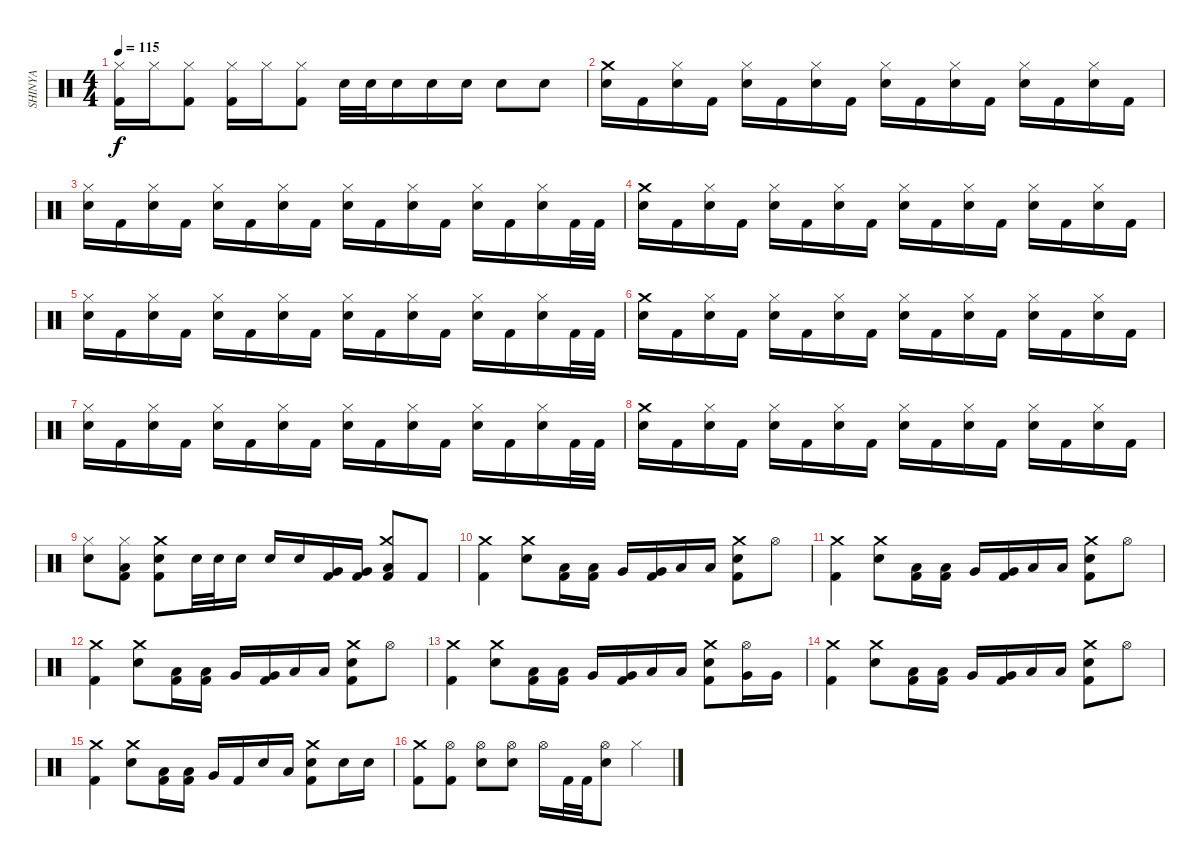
\track ("SHINYA" "SHINYA") {instrument percussion}
\staff {score}
\articulation defaults
\ts (4 4)
\tempo 115
\clef neutral
\ks c
("Hi-Hat (closed)" "Kick (hit) 2").16{dy f} "Hi-Hat (closed)".16 ("Hi-Hat (closed)" "Kick (hit) 2").8 ("Hi-Hat (closed)" "Kick (hit) 2").16 "Hi-Hat (closed)".16 ("Hi-Hat (closed)" "Kick (hit) 2").8 "Electric Snare (hit)".32 "Electric Snare (hit)".32 "Electric Snare (hit)".16 "Electric Snare (hit)".16 "Electric Snare (hit)".16 "Electric Snare (hit)".8 "Electric Snare (hit)".8 |
("Crash medium (hit)" "Electric Snare (hit)").16 "Kick (hit) 2".16 ("Hi-Hat (closed)" "Electric Snare (hit)").16 "Kick (hit) 2".16 ("Hi-Hat (closed)" "Electric Snare (hit)").16 "Kick (hit) 2".16 ("Hi-Hat (closed)" "Electric Snare (hit)").16 "Kick (hit) 2".16 ("Hi-Hat (closed)" "Electric Snare (hit)").16 "Kick (hit) 2".16 ("Hi-Hat (closed)" "Electric Snare (hit)").16 "Kick (hit) 2".16 ("Hi-Hat (closed)" "Electric Snare (hit)").16 "Kick (hit) 2".16 ("Hi-Hat (closed)" "Electric Snare (hit)").16 "Kick (hit) 2".16 |
("Hi-Hat (closed)" "Electric Snare (hit)").16 "Kick (hit) 2".16 ("Hi-Hat (closed)" "Electric Snare (hit)").16 "Kick (hit) 2".16 ("Hi-Hat (closed)" "Electric Snare (hit)").16 "Kick (hit) 2".16 ("Hi-Hat (closed)" "Electric Snare (hit)").16 "Kick (hit) 2".16 ("Hi-Hat (closed)" "Electric Snare (hit)").16 "Kick (hit) 2".16 ("Hi-Hat (closed)" "Electric Snare (hit)").16 "Kick (hit) 2".16 ("Hi-Hat (closed)" "Electric Snare (hit)").16 "Kick (hit) 2".16 ("Hi-Hat (closed)" "Electric Snare (hit)").16 "Kick (hit) 2".32 "Kick (hit) 2".32 |
("Crash medium (hit)" "Electric Snare (hit)").16 "Kick (hit) 2".16 ("Hi-Hat (closed)" "Electric Snare (hit)").16 "Kick (hit) 2".16 ("Hi-Hat (closed)" "Electric Snare (hit)").16 "Kick (hit) 2".16 ("Hi-Hat (closed)" "Electric Snare (hit)").16 "Kick (hit) 2".16 ("Hi-Hat (closed)" "Electric Snare (hit)").16 "Kick (hit) 2".16 ("Hi-Hat (closed)" "Electric Snare (hit)").16 "Kick (hit) 2".16 ("Hi-Hat (closed)" "Electric Snare (hit)").16 "Kick (hit) 2".16 ("Hi-Hat (closed)" "Electric Snare (hit)").16 "Kick (hit) 2".16 |
("Hi-Hat (closed)" "Electric Snare (hit)").16 "Kick (hit) 2".16 ("Hi-Hat (closed)" "Electric Snare (hit)").16 "Kick (hit) 2".16 ("Hi-Hat (closed)" "Electric Snare (hit)").16 "Kick (hit) 2".16 ("Hi-Hat (closed)" "Electric Snare (hit)").16 "Kick (hit) 2".16 ("Hi-Hat (closed)" "Electric Snare (hit)").16 "Kick (hit) 2".16 ("Hi-Hat (closed)" "Electric Snare (hit)").16 "Kick (hit) 2".16 ("Hi-Hat (closed)" "Electric Snare (hit)").16 "Kick (hit) 2".16 ("Hi-Hat (closed)" "Electric Snare (hit)").16 "Kick (hit) 2".32 "Kick (hit) 2".32 |
("Crash medium (hit)" "Electric Snare (hit)").16 "Kick (hit) 2".16 ("Hi-Hat (closed)" "Electric Snare (hit)").16 "Kick (hit) 2".16 ("Hi-Hat (closed)" "Electric Snare (hit)").16 "Kick (hit) 2".16 ("Hi-Hat (closed)" "Electric Snare (hit)").16 "Kick (hit) 2".16 ("Hi-Hat (closed)" "Electric Snare (hit)").16 "Kick (hit) 2".16 ("Hi-Hat (closed)" "Electric Snare (hit)").16 "Kick (hit) 2".16 ("Hi-Hat (closed)" "Electric Snare (hit)").16 "Kick (hit) 2".16 ("Hi-Hat (closed)" "Electric Snare (hit)").16 "Kick (hit) 2".16 |
("Hi-Hat (closed)" "Electric Snare (hit)").16 "Kick (hit) 2".16 ("Hi-Hat (closed)" "Electric Snare (hit)").16 "Kick (hit) 2".16 ("Hi-Hat (closed)" "Electric Snare (hit)").16 "Kick (hit) 2".16 ("Hi-Hat (closed)" "Electric Snare (hit)").16 "Kick (hit) 2".16 ("Hi-Hat (closed)" "Electric Snare (hit)").16 "Kick (hit) 2".16 ("Hi-Hat (closed)" "Electric Snare (hit)").16 "Kick (hit) 2".16 ("Hi-Hat (closed)" "Electric Snare (hit)").16 "Kick (hit) 2".16 ("Hi-Hat (closed)" "Electric Snare (hit)").16 "Kick (hit) 2".32 "Kick (hit) 2".32 |
("Crash medium (hit)" "Electric Snare (hit)").16 "Kick (hit) 2".16 ("Hi-Hat (closed)" "Electric Snare (hit)").16 "Kick (hit) 2".16 ("Hi-Hat (closed)" "Electric Snare (hit)").16 "Kick (hit) 2".16 ("Hi-Hat (closed)" "Electric Snare (hit)").16 "Kick (hit) 2".16 ("Hi-Hat (closed)" "Electric Snare (hit)").16 "Kick (hit) 2".16 ("Hi-Hat (closed)" "Electric Snare (hit)").16 "Kick (hit) 2".16 ("Hi-Hat (closed)" "Electric Snare (hit)").16 "Kick (hit) 2".16 ("Hi-Hat (closed)" "Electric Snare (hit)").16 "Kick (hit) 2".16 |
("Hi-Hat (closed)" "Electric Snare (hit)").8 ("Hi-Hat (closed)" "Low Floor Tom (hit)" "Kick (hit) 2").8 ("Crash medium (hit)" "Electric Snare (hit)" "Kick (hit) 2").8 "Electric Snare (hit)".32 "Electric Snare (hit)".32 "Electric Snare (hit)".16 "Electric Snare (hit)".16 "Electric Snare (hit)".16 ("Very Low Tom (hit)" "Kick (hit) 2").16 ("Very Low Tom (hit)" "Kick (hit) 2").16 ("Crash medium (hit)" "Low Floor Tom (hit)" "Kick (hit) 2").8 "Kick (hit) 2".8 |
("Crash medium (hit)" "Kick (hit) 2").4 ("Crash medium (hit)" "Electric Snare (hit)").8 ("Low Tom (hit)" "Kick (hit) 2").16 ("Low Tom (hit)" "Kick (hit) 2").16 "Very Low Tom (hit)".16 ("Very Low Tom (hit)" "Kick (hit) 2").16 "Low Floor Tom (hit)".16 "Low Floor Tom (hit)".16 ("Crash medium (hit)" "Electric Snare (hit)" "Kick (hit) 2").8 "Hi-Hat (open)".8 |
("Crash medium (hit)" "Kick (hit) 2").4 ("Crash medium (hit)" "Electric Snare (hit)").8 ("Low Tom (hit)" "Kick (hit) 2").16 ("Low Tom (hit)" "Kick (hit) 2").16 "Very Low Tom (hit)".16 ("Very Low Tom (hit)" "Kick (hit) 2").16 "Low Floor Tom (hit)".16 "Low Floor Tom (hit)".16 ("Crash medium (hit)" "Electric Snare (hit)" "Kick (hit) 2").8 "Hi-Hat (open)".8 |
("Crash medium (hit)" "Kick (hit) 2").4 ("Crash medium (hit)" "Electric Snare (hit)").8 ("Low Tom (hit)" "Kick (hit) 2").16 ("Low Tom (hit)" "Kick (hit) 2").16 "Very Low Tom (hit)".16 ("Very Low Tom (hit)" "Kick (hit) 2").16 "Low Floor Tom (hit)".16 "Low Floor Tom (hit)".16 ("Crash medium (hit)" "Electric Snare (hit)" "Kick (hit) 2").8 "Hi-Hat (open)".8 |
("Crash medium (hit)" "Kick (hit) 2").4 ("Crash medium (hit)" "Electric Snare (hit)").8 ("Low Tom (hit)" "Kick (hit) 2").16 ("Low Tom (hit)" "Kick (hit) 2").16 "Very Low Tom (hit)".16 ("Very Low Tom (hit)" "Kick (hit) 2").16 "Low Floor Tom (hit)".16 "Low Floor Tom (hit)".16 ("Crash medium (hit)" "Electric Snare (hit)" "Kick (hit) 2").8 ("Hi-Hat (open)" "Very Low Tom (hit)").16 "Very Low Tom (hit)".16 |
("Crash medium (hit)" "Kick (hit) 2").4 ("Crash medium (hit)" "Electric Snare (hit)").8 ("Low Tom (hit)" "Kick (hit) 2").16 ("Low Tom (hit)" "Kick (hit) 2").16 "Very Low Tom (hit)".16 ("Very Low Tom (hit)" "Kick (hit) 2").16 "Low Floor Tom (hit)".16 "Low Floor Tom (hit)".16 ("Crash medium (hit)" "Electric Snare (hit)" "Kick (hit) 2").8 "Hi-Hat (open)".8 |
("Crash medium (hit)" "Kick (hit) 2").4 ("Crash medium (hit)" "Electric Snare (hit)").8 ("Low Tom (hit)" "Kick (hit) 2").16 ("Low Tom (hit)" "Kick (hit) 2").16 "Very Low Tom (hit)".16 "Kick (hit) 2".16 "Electric Snare (hit)".16 "Low Floor Tom (hit)".16 ("Crash medium (hit)" "Electric Snare (hit)" "Kick (hit) 2").8 "Electric Snare (hit)".16 "Electric Snare (hit)".16 |
("Crash medium (hit)" "Kick (hit) 2").8 ("Hi-Hat (open)" "Kick (hit) 2").8 ("Hi-Hat (open)" "Electric Snare (hit)").8 ("Hi-Hat (open)" "Electric Snare (hit)").8 "Hi-Hat (open)".16 "Kick (hit) 2".32 "Kick (hit) 2".32 ("Hi-Hat (open)" "Electric Snare (hit)").8 "Hi-Hat (closed)".4
